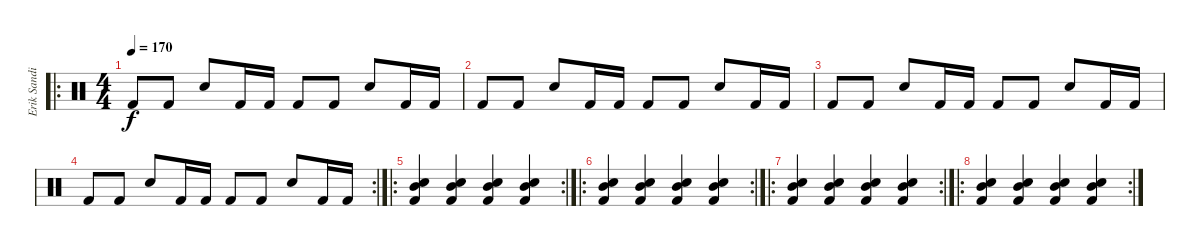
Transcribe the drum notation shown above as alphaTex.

\track ("Erik Sandin (Drums)" "Erik Sandi") {instrument percussion}
\staff {score}
\articulation defaults
\ro
\ts (4 4)
\tempo 170
\clef neutral
\ks c "Kick (hit) 2".8{dy f} "Kick (hit) 2".8 "Snare (hit) 2".8 "Kick (hit) 2".16 "Kick (hit) 2".16 "Kick (hit) 2".8 "Kick (hit) 2".8 "Snare (hit) 2".8 "Kick (hit) 2".16 "Kick (hit) 2".16
|
"Kick (hit) 2".8 "Kick (hit) 2".8 "Snare (hit) 2".8 "Kick (hit) 2".16 "Kick (hit) 2".16 "Kick (hit) 2".8 "Kick (hit) 2".8 "Snare (hit) 2".8 "Kick (hit) 2".16 "Kick (hit) 2".16 |
"Kick (hit) 2".8 "Kick (hit) 2".8 "Snare (hit) 2".8 "Kick (hit) 2".16 "Kick (hit) 2".16 "Kick (hit) 2".8 "Kick (hit) 2".8 "Snare (hit) 2".8 "Kick (hit) 2".16 "Kick (hit) 2".16 |
\rc 2 "Kick (hit) 2".8 "Kick (hit) 2".8 "Snare (hit) 2".8 "Kick (hit) 2".16 "Kick (hit) 2".16 "Kick (hit) 2".8 "Kick (hit) 2".8 "Snare (hit) 2".8 "Kick (hit) 2".16 "Kick (hit) 2".16
|
\ro
\rc 2
("Mid Tom (hit)" "Electric Snare (hit)" "Kick (hit) 2").4 ("Mid Tom (hit)" "Electric Snare (hit)" "Kick (hit) 2").4 ("Mid Tom (hit)" "Electric Snare (hit)" "Kick (hit) 2").4 ("Mid Tom (hit)" "Electric Snare (hit)" "Kick (hit) 2").4 |
\ro
\rc 2
("Mid Tom (hit)" "Electric Snare (hit)" "Kick (hit) 2").4 ("Mid Tom (hit)" "Electric Snare (hit)" "Kick (hit) 2").4 ("Mid Tom (hit)" "Electric Snare (hit)" "Kick (hit) 2").4 ("Mid Tom (hit)" "Electric Snare (hit)" "Kick (hit) 2").4 |
\ro
\rc 2
("Mid Tom (hit)" "Electric Snare (hit)" "Kick (hit) 2").4 ("Mid Tom (hit)" "Electric Snare (hit)" "Kick (hit) 2").4 ("Mid Tom (hit)" "Electric Snare (hit)" "Kick (hit) 2").4 ("Mid Tom (hit)" "Electric Snare (hit)" "Kick (hit) 2").4 |
\ro
\rc 2
("Mid Tom (hit)" "Electric Snare (hit)" "Kick (hit) 2").4 ("Mid Tom (hit)" "Electric Snare (hit)" "Kick (hit) 2").4 ("Mid Tom (hit)" "Electric Snare (hit)" "Kick (hit) 2").4 ("Mid Tom (hit)" "Electric Snare (hit)" "Kick (hit) 2").4
